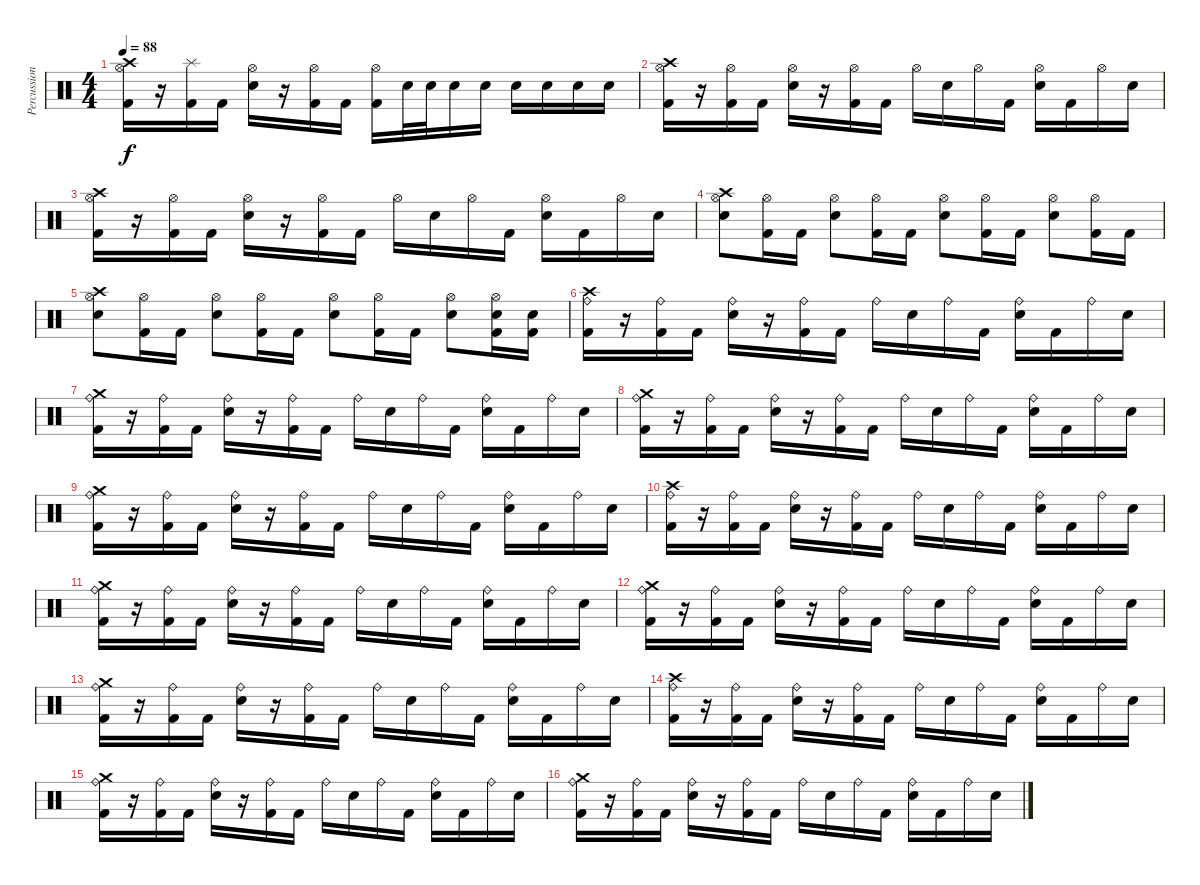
\track ("Percussion" "Percussion") {instrument percussion}
\staff {score}
\articulation defaults
\ts (4 4)
\tempo 88
\clef neutral
\ks c
("Crash high (hit)" "Hi-Hat (open)" "Kick (hit) 2").16{dy f} r.16 ("Splash (hit)" "Kick (hit) 2").16 "Kick (hit) 2".16 ("Hi-Hat (open)" "Electric Snare (hit)").16 r.16 ("Hi-Hat (open)" "Kick (hit) 2").16 "Kick (hit) 2".16 ("Hi-Hat (open)" "Kick (hit) 2").16 "Electric Snare (hit)".32 "Electric Snare (hit)".32 "Electric Snare (hit)".16 "Electric Snare (hit)".16 "Electric Snare (hit)".16 "Electric Snare (hit)".16 "Electric Snare (hit)".16 "Electric Snare (hit)".16 |
("Crash high (hit)" "Hi-Hat (open)" "Kick (hit) 2").16 r.16 ("Hi-Hat (open)" "Kick (hit) 2").16 "Kick (hit) 2".16 ("Hi-Hat (open)" "Electric Snare (hit)").16 r.16 ("Hi-Hat (open)" "Kick (hit) 2").16 "Kick (hit) 2".16 "Hi-Hat (open)".16 "Electric Snare (hit)".16 "Hi-Hat (open)".16 "Kick (hit) 2".16 ("Hi-Hat (open)" "Electric Snare (hit)").16 "Kick (hit) 2".16 "Hi-Hat (open)".16 "Electric Snare (hit)".16 |
("Crash high (hit)" "Hi-Hat (open)" "Kick (hit) 2").16 r.16 ("Hi-Hat (open)" "Kick (hit) 2").16 "Kick (hit) 2".16 ("Hi-Hat (open)" "Electric Snare (hit)").16 r.16 ("Hi-Hat (open)" "Kick (hit) 2").16 "Kick (hit) 2".16 "Hi-Hat (open)".16 "Electric Snare (hit)".16 "Hi-Hat (open)".16 "Kick (hit) 2".16 ("Hi-Hat (open)" "Electric Snare (hit)").16 "Kick (hit) 2".16 "Hi-Hat (open)".16 "Electric Snare (hit)".16 |
("Crash high (hit)" "Hi-Hat (open)" "Electric Snare (hit)").8 ("Hi-Hat (open)" "Kick (hit) 2").16 "Kick (hit) 2".16 ("Hi-Hat (open)" "Electric Snare (hit)").8 ("Hi-Hat (open)" "Kick (hit) 2").16 "Kick (hit) 2".16 ("Hi-Hat (open)" "Electric Snare (hit)").8 ("Hi-Hat (open)" "Kick (hit) 2").16 "Kick (hit) 2".16 ("Hi-Hat (open)" "Electric Snare (hit)").8 ("Hi-Hat (open)" "Kick (hit) 2").16 "Kick (hit) 2".16 |
("Crash high (hit)" "Hi-Hat (open)" "Electric Snare (hit)").8 ("Hi-Hat (open)" "Kick (hit) 2").16 "Kick (hit) 2".16 ("Hi-Hat (open)" "Electric Snare (hit)").8 ("Hi-Hat (open)" "Kick (hit) 2").16 "Kick (hit) 2".16 ("Hi-Hat (open)" "Electric Snare (hit)").8 ("Hi-Hat (open)" "Kick (hit) 2").16 "Kick (hit) 2".16 ("Hi-Hat (open)" "Electric Snare (hit)").8 ("Hi-Hat (open)" "Electric Snare (hit)" "Kick (hit) 2").16 ("Electric Snare (hit)" "Kick (hit) 2").16 |
("Crash high (hit)" "Ride (bell)" "Kick (hit) 2").16 r.16 ("Ride (bell)" "Kick (hit) 2").16 "Kick (hit) 2".16 ("Ride (bell)" "Electric Snare (hit)").16 r.16 ("Ride (bell)" "Kick (hit) 2").16 "Kick (hit) 2".16 "Ride (bell)".16 "Electric Snare (hit)".16 "Ride (bell)".16 "Kick (hit) 2".16 ("Ride (bell)" "Electric Snare (hit)").16 "Kick (hit) 2".16 "Ride (bell)".16 "Electric Snare (hit)".16 |
("Crash medium (hit)" "Ride (bell)" "Kick (hit) 2").16 r.16 ("Ride (bell)" "Kick (hit) 2").16 "Kick (hit) 2".16 ("Ride (bell)" "Electric Snare (hit)").16 r.16 ("Ride (bell)" "Kick (hit) 2").16 "Kick (hit) 2".16 "Ride (bell)".16 "Electric Snare (hit)".16 "Ride (bell)".16 "Kick (hit) 2".16 ("Ride (bell)" "Electric Snare (hit)").16 "Kick (hit) 2".16 "Ride (bell)".16 "Electric Snare (hit)".16 |
("Crash medium (hit)" "Ride (bell)" "Kick (hit) 2").16 r.16 ("Ride (bell)" "Kick (hit) 2").16 "Kick (hit) 2".16 ("Ride (bell)" "Electric Snare (hit)").16 r.16 ("Ride (bell)" "Kick (hit) 2").16 "Kick (hit) 2".16 "Ride (bell)".16 "Electric Snare (hit)".16 "Ride (bell)".16 "Kick (hit) 2".16 ("Ride (bell)" "Electric Snare (hit)").16 "Kick (hit) 2".16 "Ride (bell)".16 "Electric Snare (hit)".16 |
("Crash medium (hit)" "Ride (bell)" "Kick (hit) 2").16 r.16 ("Ride (bell)" "Kick (hit) 2").16 "Kick (hit) 2".16 ("Ride (bell)" "Electric Snare (hit)").16 r.16 ("Ride (bell)" "Kick (hit) 2").16 "Kick (hit) 2".16 "Ride (bell)".16 "Electric Snare (hit)".16 "Ride (bell)".16 "Kick (hit) 2".16 ("Ride (bell)" "Electric Snare (hit)").16 "Kick (hit) 2".16 "Ride (bell)".16 "Electric Snare (hit)".16 |
("Crash high (hit)" "Ride (bell)" "Kick (hit) 2").16 r.16 ("Ride (bell)" "Kick (hit) 2").16 "Kick (hit) 2".16 ("Ride (bell)" "Electric Snare (hit)").16 r.16 ("Ride (bell)" "Kick (hit) 2").16 "Kick (hit) 2".16 "Ride (bell)".16 "Electric Snare (hit)".16 "Ride (bell)".16 "Kick (hit) 2".16 ("Ride (bell)" "Electric Snare (hit)").16 "Kick (hit) 2".16 "Ride (bell)".16 "Electric Snare (hit)".16 |
("Crash medium (hit)" "Ride (bell)" "Kick (hit) 2").16 r.16 ("Ride (bell)" "Kick (hit) 2").16 "Kick (hit) 2".16 ("Ride (bell)" "Electric Snare (hit)").16 r.16 ("Ride (bell)" "Kick (hit) 2").16 "Kick (hit) 2".16 "Ride (bell)".16 "Electric Snare (hit)".16 "Ride (bell)".16 "Kick (hit) 2".16 ("Ride (bell)" "Electric Snare (hit)").16 "Kick (hit) 2".16 "Ride (bell)".16 "Electric Snare (hit)".16 |
("Crash medium (hit)" "Ride (bell)" "Kick (hit) 2").16 r.16 ("Ride (bell)" "Kick (hit) 2").16 "Kick (hit) 2".16 ("Ride (bell)" "Electric Snare (hit)").16 r.16 ("Ride (bell)" "Kick (hit) 2").16 "Kick (hit) 2".16 "Ride (bell)".16 "Electric Snare (hit)".16 "Ride (bell)".16 "Kick (hit) 2".16 ("Ride (bell)" "Electric Snare (hit)").16 "Kick (hit) 2".16 "Ride (bell)".16 "Electric Snare (hit)".16 |
("Crash medium (hit)" "Ride (bell)" "Kick (hit) 2").16 r.16 ("Ride (bell)" "Kick (hit) 2").16 "Kick (hit) 2".16 ("Ride (bell)" "Electric Snare (hit)").16 r.16 ("Ride (bell)" "Kick (hit) 2").16 "Kick (hit) 2".16 "Ride (bell)".16 "Electric Snare (hit)".16 "Ride (bell)".16 "Kick (hit) 2".16 ("Ride (bell)" "Electric Snare (hit)").16 "Kick (hit) 2".16 "Ride (bell)".16 "Electric Snare (hit)".16 |
("Crash high (hit)" "Ride (bell)" "Kick (hit) 2").16 r.16 ("Ride (bell)" "Kick (hit) 2").16 "Kick (hit) 2".16 ("Ride (bell)" "Electric Snare (hit)").16 r.16 ("Ride (bell)" "Kick (hit) 2").16 "Kick (hit) 2".16 "Ride (bell)".16 "Electric Snare (hit)".16 "Ride (bell)".16 "Kick (hit) 2".16 ("Ride (bell)" "Electric Snare (hit)").16 "Kick (hit) 2".16 "Ride (bell)".16 "Electric Snare (hit)".16 |
("Crash medium (hit)" "Ride (bell)" "Kick (hit) 2").16 r.16 ("Ride (bell)" "Kick (hit) 2").16 "Kick (hit) 2".16 ("Ride (bell)" "Electric Snare (hit)").16 r.16 ("Ride (bell)" "Kick (hit) 2").16 "Kick (hit) 2".16 "Ride (bell)".16 "Electric Snare (hit)".16 "Ride (bell)".16 "Kick (hit) 2".16 ("Ride (bell)" "Electric Snare (hit)").16 "Kick (hit) 2".16 "Ride (bell)".16 "Electric Snare (hit)".16 |
("Crash medium (hit)" "Ride (bell)" "Kick (hit) 2").16 r.16 ("Ride (bell)" "Kick (hit) 2").16 "Kick (hit) 2".16 ("Ride (bell)" "Electric Snare (hit)").16 r.16 ("Ride (bell)" "Kick (hit) 2").16 "Kick (hit) 2".16 "Ride (bell)".16 "Electric Snare (hit)".16 "Ride (bell)".16 "Kick (hit) 2".16 ("Ride (bell)" "Electric Snare (hit)").16 "Kick (hit) 2".16 "Ride (bell)".16 "Electric Snare (hit)".16
